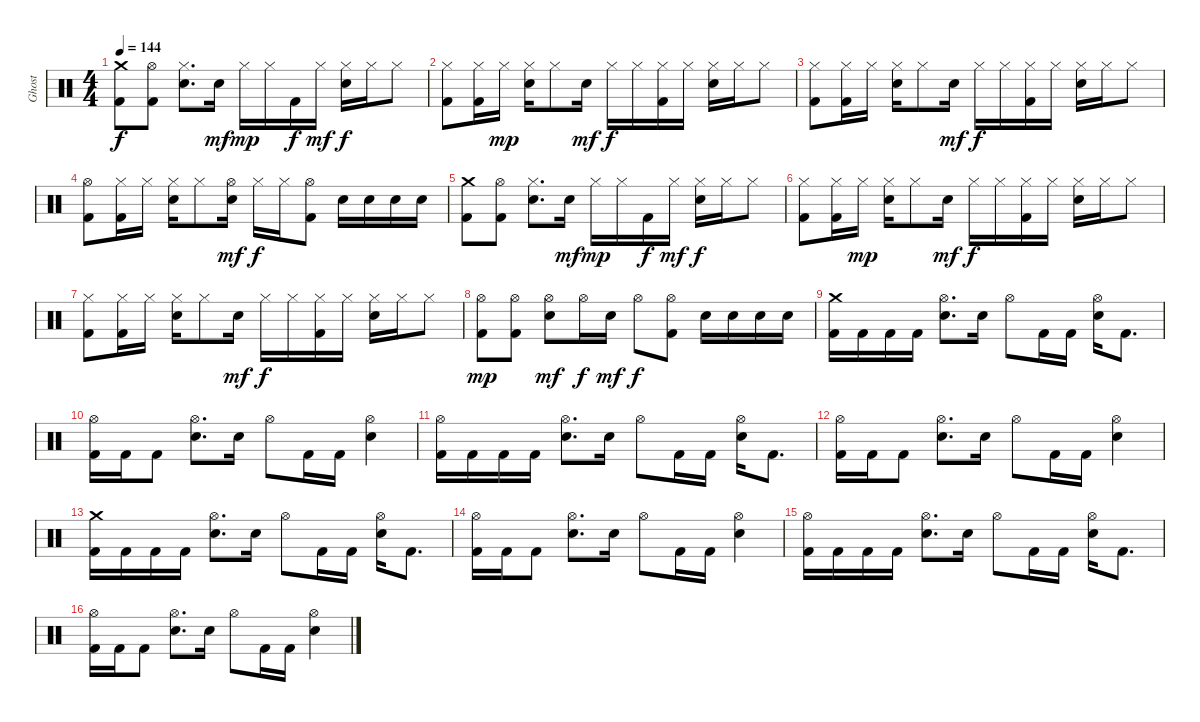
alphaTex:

\track ("Ghost" "Ghost") {instrument percussion}
\staff {score}
\articulation defaults
\ts (4 4)
\tempo 144
\clef neutral
\ks c
("Crash medium (hit)" "Kick (hit) 2").8{dy f} ("Hi-Hat (open)" "Kick (hit) 2").8 ("Hi-Hat (closed)" "Electric Snare (hit)").8{d} "Electric Snare (hit)".16{dy mf} "Hi-Hat (closed)".16{dy mp} "Hi-Hat (closed)".16 "Kick (hit) 2".16{dy f} "Hi-Hat (closed)".16{dy mf} ("Hi-Hat (closed)" "Electric Snare (hit)").16{dy f} "Hi-Hat (closed)".16 "Hi-Hat (closed)".8 |
("Hi-Hat (closed)" "Kick (hit) 2").8 ("Hi-Hat (closed)" "Kick (hit) 2").16 "Hi-Hat (closed)".16{dy mp} ("Hi-Hat (closed)" "Electric Snare (hit)").16 "Hi-Hat (closed)".8 "Electric Snare (hit)".16{dy mf} "Hi-Hat (closed)".16{dy f} "Hi-Hat (closed)".16 ("Hi-Hat (closed)" "Kick (hit) 2").16 "Hi-Hat (closed)".16 ("Hi-Hat (closed)" "Electric Snare (hit)").16 "Hi-Hat (closed)".16 "Hi-Hat (closed)".8 |
("Hi-Hat (closed)" "Kick (hit) 2").8 ("Hi-Hat (closed)" "Kick (hit) 2").16 "Hi-Hat (closed)".16 ("Hi-Hat (closed)" "Electric Snare (hit)").16 "Hi-Hat (closed)".8 "Electric Snare (hit)".16{dy mf} "Hi-Hat (closed)".16{dy f} "Hi-Hat (closed)".16 ("Hi-Hat (closed)" "Kick (hit) 2").16 "Hi-Hat (closed)".16 ("Hi-Hat (closed)" "Electric Snare (hit)").16 "Hi-Hat (closed)".16 "Hi-Hat (closed)".8 |
("Hi-Hat (open)" "Kick (hit) 2").8 ("Hi-Hat (closed)" "Kick (hit) 2").16 "Hi-Hat (closed)".16 ("Hi-Hat (closed)" "Electric Snare (hit)").16 "Hi-Hat (closed)".8 ("Hi-Hat (open)" "Electric Snare (hit)").16{dy mf} "Hi-Hat (closed)".16{dy f} "Hi-Hat (closed)".16 ("Hi-Hat (open)" "Kick (hit) 2").8 "Electric Snare (hit)".16 "Electric Snare (hit)".16 "Electric Snare (hit)".16 "Electric Snare (hit)".16 |
("Crash medium (hit)" "Kick (hit) 2").8 ("Hi-Hat (open)" "Kick (hit) 2").8 ("Hi-Hat (closed)" "Electric Snare (hit)").8{d} "Electric Snare (hit)".16{dy mf} "Hi-Hat (closed)".16{dy mp} "Hi-Hat (closed)".16 "Kick (hit) 2".16{dy f} "Hi-Hat (closed)".16{dy mf} ("Hi-Hat (closed)" "Electric Snare (hit)").16{dy f} "Hi-Hat (closed)".16 "Hi-Hat (closed)".8 |
("Hi-Hat (closed)" "Kick (hit) 2").8 ("Hi-Hat (closed)" "Kick (hit) 2").16 "Hi-Hat (closed)".16{dy mp} ("Hi-Hat (closed)" "Electric Snare (hit)").16 "Hi-Hat (closed)".8 "Electric Snare (hit)".16{dy mf} "Hi-Hat (closed)".16{dy f} "Hi-Hat (closed)".16 ("Hi-Hat (closed)" "Kick (hit) 2").16 "Hi-Hat (closed)".16 ("Hi-Hat (closed)" "Electric Snare (hit)").16 "Hi-Hat (closed)".16 "Hi-Hat (closed)".8 |
("Hi-Hat (closed)" "Kick (hit) 2").8 ("Hi-Hat (closed)" "Kick (hit) 2").16 "Hi-Hat (closed)".16 ("Hi-Hat (closed)" "Electric Snare (hit)").16 "Hi-Hat (closed)".8 "Electric Snare (hit)".16{dy mf} "Hi-Hat (closed)".16{dy f} "Hi-Hat (closed)".16 ("Hi-Hat (closed)" "Kick (hit) 2").16 "Hi-Hat (closed)".16 ("Hi-Hat (closed)" "Electric Snare (hit)").16 "Hi-Hat (closed)".16 "Hi-Hat (closed)".8 |
("Hi-Hat (open)" "Kick (hit) 2").8{dy mp} ("Hi-Hat (open)" "Kick (hit) 2").8 ("Hi-Hat (open)" "Electric Snare (hit)").8{dy mf} "Hi-Hat (open)".16{dy f} "Electric Snare (hit)".16{dy mf} "Hi-Hat (open)".8{dy f} ("Hi-Hat (open)" "Kick (hit) 2").8 "Electric Snare (hit)".16 "Electric Snare (hit)".16 "Electric Snare (hit)".16 "Electric Snare (hit)".16 |
("Crash medium (hit)" "Kick (hit) 2").16 "Kick (hit) 2".16 "Kick (hit) 2".16 "Kick (hit) 2".16 ("Hi-Hat (open)" "Electric Snare (hit)").8{d} "Electric Snare (hit)".16 "Hi-Hat (open)".8 "Kick (hit) 2".16 "Kick (hit) 2".16 ("Hi-Hat (open)" "Electric Snare (hit)").16 "Kick (hit) 2".8{d} |
("Hi-Hat (open)" "Kick (hit) 2").16 "Kick (hit) 2".16 "Kick (hit) 2".8 ("Hi-Hat (open)" "Electric Snare (hit)").8{d} "Electric Snare (hit)".16 "Hi-Hat (open)".8 "Kick (hit) 2".16 "Kick (hit) 2".16 ("Hi-Hat (open)" "Electric Snare (hit)").4 |
("Hi-Hat (open)" "Kick (hit) 2").16 "Kick (hit) 2".16 "Kick (hit) 2".16 "Kick (hit) 2".16 ("Hi-Hat (open)" "Electric Snare (hit)").8{d} "Electric Snare (hit)".16 "Hi-Hat (open)".8 "Kick (hit) 2".16 "Kick (hit) 2".16 ("Hi-Hat (open)" "Electric Snare (hit)").16 "Kick (hit) 2".8{d} |
("Hi-Hat (open)" "Kick (hit) 2").16 "Kick (hit) 2".16 "Kick (hit) 2".8 ("Hi-Hat (open)" "Electric Snare (hit)").8{d} "Electric Snare (hit)".16 "Hi-Hat (open)".8 "Kick (hit) 2".16 "Kick (hit) 2".16 ("Hi-Hat (open)" "Electric Snare (hit)").4 |
("Crash medium (hit)" "Kick (hit) 2").16 "Kick (hit) 2".16 "Kick (hit) 2".16 "Kick (hit) 2".16 ("Hi-Hat (open)" "Electric Snare (hit)").8{d} "Electric Snare (hit)".16 "Hi-Hat (open)".8 "Kick (hit) 2".16 "Kick (hit) 2".16 ("Hi-Hat (open)" "Electric Snare (hit)").16 "Kick (hit) 2".8{d} |
("Hi-Hat (open)" "Kick (hit) 2").16 "Kick (hit) 2".16 "Kick (hit) 2".8 ("Hi-Hat (open)" "Electric Snare (hit)").8{d} "Electric Snare (hit)".16 "Hi-Hat (open)".8 "Kick (hit) 2".16 "Kick (hit) 2".16 ("Hi-Hat (open)" "Electric Snare (hit)").4 |
("Hi-Hat (open)" "Kick (hit) 2").16 "Kick (hit) 2".16 "Kick (hit) 2".16 "Kick (hit) 2".16 ("Hi-Hat (open)" "Electric Snare (hit)").8{d} "Electric Snare (hit)".16 "Hi-Hat (open)".8 "Kick (hit) 2".16 "Kick (hit) 2".16 ("Hi-Hat (open)" "Electric Snare (hit)").16 "Kick (hit) 2".8{d} |
("Hi-Hat (open)" "Kick (hit) 2").16 "Kick (hit) 2".16 "Kick (hit) 2".8 ("Hi-Hat (open)" "Electric Snare (hit)").8{d} "Electric Snare (hit)".16 "Hi-Hat (open)".8 "Kick (hit) 2".16 "Kick (hit) 2".16 ("Hi-Hat (open)" "Electric Snare (hit)").4
